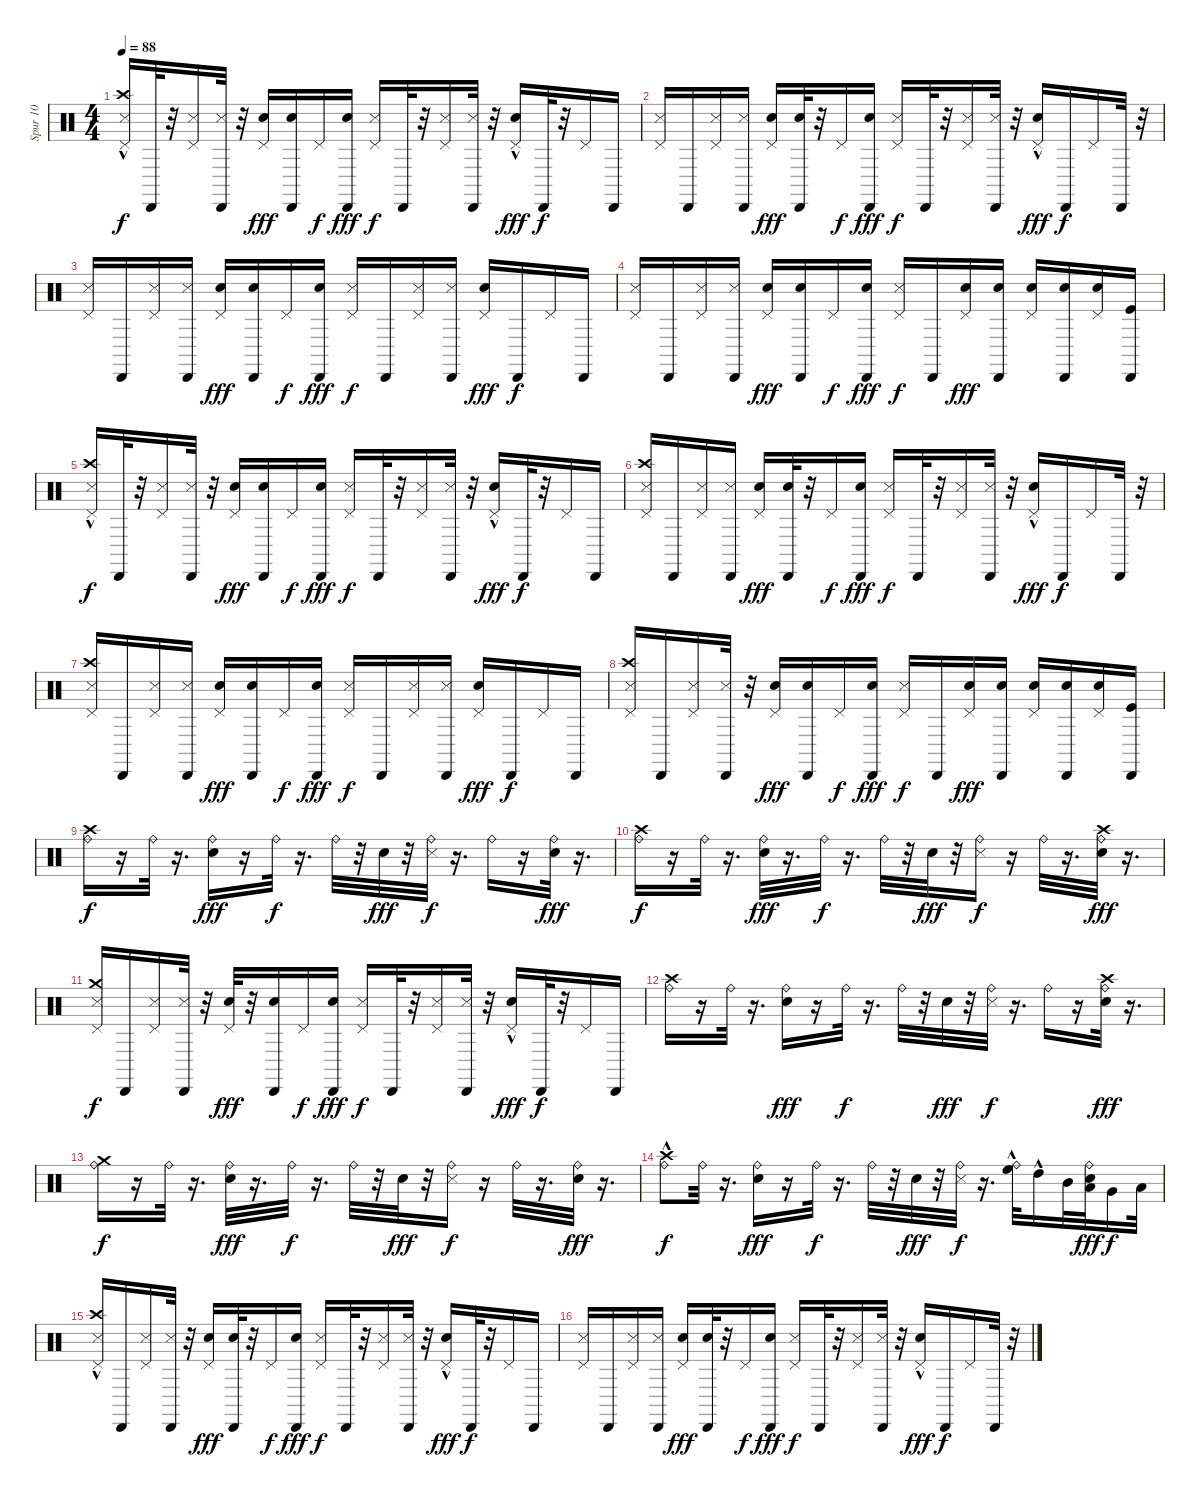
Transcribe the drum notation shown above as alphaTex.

\track ("Spur 10" "Spur 10") {instrument percussion}
\staff {score}
\articulation defaults
\ts (4 4)
\tempo 88
\clef neutral
\ks c
("Pedal Hi-Hat (hit)" "Metronome (hit)" "Crash high (hit)"{hac}).16{dy f} "Cabasa (hit)".32 r.32 ("Pedal Hi-Hat (hit)" "Metronome (hit)").16 ("Cabasa (hit)" "Metronome (hit)").32 r.32 ("Pedal Hi-Hat (hit)" "Electric Snare (hit)").16{dy fff} ("Cabasa (hit)" "Electric Snare (hit)").16 "Pedal Hi-Hat (hit)".16{dy f} ("Cabasa (hit)" "Electric Snare (hit)").16{dy fff} ("Pedal Hi-Hat (hit)" "Metronome (hit)").16{dy f} "Cabasa (hit)".32 r.32 ("Pedal Hi-Hat (hit)" "Metronome (hit)").16 ("Cabasa (hit)" "Metronome (hit)").32 r.32 ("Pedal Hi-Hat (hit)" "Electric Snare (hit)"{hac}).16{dy fff} "Cabasa (hit)".32{dy f} r.32 "Pedal Hi-Hat (hit)".16 "Cabasa (hit)".16 |
("Pedal Hi-Hat (hit)" "Metronome (hit)").16 "Cabasa (hit)".16 ("Pedal Hi-Hat (hit)" "Metronome (hit)").16 ("Cabasa (hit)" "Metronome (hit)").16 ("Pedal Hi-Hat (hit)" "Electric Snare (hit)").16{dy fff} ("Cabasa (hit)" "Electric Snare (hit)").32 r.32 "Pedal Hi-Hat (hit)".16{dy f} ("Cabasa (hit)" "Electric Snare (hit)").16{dy fff} ("Pedal Hi-Hat (hit)" "Metronome (hit)").16{dy f} "Cabasa (hit)".32 r.32 ("Pedal Hi-Hat (hit)" "Metronome (hit)").16 ("Cabasa (hit)" "Metronome (hit)").32 r.32 ("Pedal Hi-Hat (hit)" "Electric Snare (hit)"{hac}).16{dy fff} "Cabasa (hit)".16{dy f} "Pedal Hi-Hat (hit)".16 "Cabasa (hit)".32 r.32 |
("Pedal Hi-Hat (hit)" "Metronome (hit)").16 "Cabasa (hit)".16 ("Pedal Hi-Hat (hit)" "Metronome (hit)").16 ("Cabasa (hit)" "Metronome (hit)").16 ("Pedal Hi-Hat (hit)" "Electric Snare (hit)").16{dy fff} ("Cabasa (hit)" "Electric Snare (hit)").16 "Pedal Hi-Hat (hit)".16{dy f} ("Cabasa (hit)" "Electric Snare (hit)").16{dy fff} ("Pedal Hi-Hat (hit)" "Metronome (hit)").16{dy f} "Cabasa (hit)".16 ("Pedal Hi-Hat (hit)" "Metronome (hit)").16 ("Cabasa (hit)" "Metronome (hit)").16 ("Pedal Hi-Hat (hit)" "Electric Snare (hit)").16{dy fff} "Cabasa (hit)".16{dy f} "Pedal Hi-Hat (hit)".16 "Cabasa (hit)".16 |
("Pedal Hi-Hat (hit)" "Metronome (hit)").16 "Cabasa (hit)".16 ("Metronome (hit)" "Pedal Hi-Hat (hit)").16 ("Metronome (hit)" "Cabasa (hit)").16 ("Pedal Hi-Hat (hit)" "Electric Snare (hit)").16{dy fff} ("Cabasa (hit)" "Electric Snare (hit)").16 "Pedal Hi-Hat (hit)".16{dy f} ("Cabasa (hit)" "Electric Snare (hit)").16{dy fff} ("Metronome (hit)" "Pedal Hi-Hat (hit)").16{dy f} "Cabasa (hit)".16 ("Pedal Hi-Hat (hit)" "Electric Snare (hit)").16{dy fff} ("Cabasa (hit)" "Electric Snare (hit)").16 ("Pedal Hi-Hat (hit)" "Electric Snare (hit)").16 ("Cabasa (hit)" "Electric Snare (hit)").16 ("Pedal Hi-Hat (hit)" "Electric Snare (hit)").16 ("Cabasa (hit)" "Kick (hit)").16 |
("Pedal Hi-Hat (hit)" "Metronome (hit)" "Crash high (hit)"{hac}).16{dy f} "Cabasa (hit)".32 r.32 ("Pedal Hi-Hat (hit)" "Metronome (hit)").16 ("Cabasa (hit)" "Metronome (hit)").32 r.32 ("Pedal Hi-Hat (hit)" "Electric Snare (hit)").16{dy fff} ("Cabasa (hit)" "Electric Snare (hit)").16 "Pedal Hi-Hat (hit)".16{dy f} ("Cabasa (hit)" "Electric Snare (hit)").16{dy fff} ("Pedal Hi-Hat (hit)" "Metronome (hit)").16{dy f} "Cabasa (hit)".32 r.32 ("Pedal Hi-Hat (hit)" "Metronome (hit)").16 ("Cabasa (hit)" "Metronome (hit)").32 r.32 ("Pedal Hi-Hat (hit)" "Electric Snare (hit)"{hac}).16{dy fff} "Cabasa (hit)".32{dy f} r.32 "Pedal Hi-Hat (hit)".16 "Cabasa (hit)".16 |
("Pedal Hi-Hat (hit)" "Metronome (hit)" "Crash high (hit)").16 "Cabasa (hit)".16 ("Pedal Hi-Hat (hit)" "Metronome (hit)").16 ("Cabasa (hit)" "Metronome (hit)").16 ("Pedal Hi-Hat (hit)" "Electric Snare (hit)").16{dy fff} ("Cabasa (hit)" "Electric Snare (hit)").32 r.32 "Pedal Hi-Hat (hit)".16{dy f} ("Cabasa (hit)" "Electric Snare (hit)").16{dy fff} ("Pedal Hi-Hat (hit)" "Metronome (hit)").16{dy f} "Cabasa (hit)".32 r.32 ("Pedal Hi-Hat (hit)" "Metronome (hit)").16 ("Cabasa (hit)" "Metronome (hit)").32 r.32 ("Pedal Hi-Hat (hit)" "Electric Snare (hit)"{hac}).16{dy fff} "Cabasa (hit)".16{dy f} "Pedal Hi-Hat (hit)".16 "Cabasa (hit)".32 r.32 |
("Pedal Hi-Hat (hit)" "Metronome (hit)" "Crash high (hit)").16 "Cabasa (hit)".16 ("Pedal Hi-Hat (hit)" "Metronome (hit)").16 ("Cabasa (hit)" "Metronome (hit)").16 ("Pedal Hi-Hat (hit)" "Electric Snare (hit)").16{dy fff} ("Cabasa (hit)" "Electric Snare (hit)").16 "Pedal Hi-Hat (hit)".16{dy f} ("Cabasa (hit)" "Electric Snare (hit)").16{dy fff} ("Pedal Hi-Hat (hit)" "Metronome (hit)").16{dy f} "Cabasa (hit)".16 ("Pedal Hi-Hat (hit)" "Metronome (hit)").16 ("Cabasa (hit)" "Metronome (hit)").16 ("Pedal Hi-Hat (hit)" "Electric Snare (hit)").16{dy fff} "Cabasa (hit)".16{dy f} "Pedal Hi-Hat (hit)".16 "Cabasa (hit)".16 |
("Pedal Hi-Hat (hit)" "Metronome (hit)" "Crash high (hit)").16 "Cabasa (hit)".16 ("Metronome (hit)" "Pedal Hi-Hat (hit)").16 ("Metronome (hit)" "Cabasa (hit)").32 r.32 ("Pedal Hi-Hat (hit)" "Electric Snare (hit)").16{dy fff} ("Cabasa (hit)" "Electric Snare (hit)").16 "Pedal Hi-Hat (hit)".16{dy f} ("Cabasa (hit)" "Electric Snare (hit)").16{dy fff} ("Metronome (hit)" "Pedal Hi-Hat (hit)").16{dy f} "Cabasa (hit)".16 ("Pedal Hi-Hat (hit)" "Electric Snare (hit)").16{dy fff} ("Cabasa (hit)" "Electric Snare (hit)").16 ("Pedal Hi-Hat (hit)" "Electric Snare (hit)").16 ("Cabasa (hit)" "Electric Snare (hit)").16 ("Pedal Hi-Hat (hit)" "Electric Snare (hit)").16 ("Cabasa (hit)" "Kick (hit)").16 |
("Ride (bell)" "Crash high (hit)").16{dy f} r.16 "Ride (bell)".32 r.16{d} ("Ride (bell)" "Electric Snare (hit)").16{dy fff} r.16 "Ride (bell)".32{dy f} r.16{d} "Ride (bell)".32 r.32 "Electric Snare (hit)".32{dy fff} r.32 ("Metronome (hit)" "Ride (bell)").32{dy f} r.16{d} "Ride (bell)".16 r.16 ("Ride (bell)" "Electric Snare (hit)").32{dy fff} r.16{d} |
("Ride (bell)" "Crash high (hit)").16{dy f} r.16 "Ride (bell)".32 r.16{d} ("Ride (bell)" "Electric Snare (hit)").32{dy fff} r.16{d} "Ride (bell)".32{dy f} r.16{d} "Ride (bell)".32 r.32 "Electric Snare (hit)".32{dy fff} r.32 ("Metronome (hit)" "Ride (bell)").16{dy f} r.16 "Ride (bell)".32 r.16{d} ("Ride (bell)" "Electric Snare (hit)" "Crash high (hit)").32{dy fff} r.16{d} |
("Metronome (hit)" "Pedal Hi-Hat (hit)" "Crash medium (hit)").16{dy f} "Cabasa (hit)".16 ("Metronome (hit)" "Pedal Hi-Hat (hit)").16 ("Metronome (hit)" "Cabasa (hit)").32 r.32 ("Pedal Hi-Hat (hit)" "Electric Snare (hit)").32{dy fff} r.32 ("Cabasa (hit)" "Electric Snare (hit)").16 "Pedal Hi-Hat (hit)".16{dy f} ("Cabasa (hit)" "Electric Snare (hit)").16{dy fff} ("Pedal Hi-Hat (hit)" "Metronome (hit)").16{dy f} "Cabasa (hit)".32 r.32 ("Pedal Hi-Hat (hit)" "Metronome (hit)").16 ("Cabasa (hit)" "Metronome (hit)").32 r.32 ("Pedal Hi-Hat (hit)" "Electric Snare (hit)"{hac}).16{dy fff} "Cabasa (hit)".32{dy f} r.32 "Pedal Hi-Hat (hit)".16 "Cabasa (hit)".16 |
("Ride (bell)" "Crash high (hit)").16 r.16 "Ride (bell)".32 r.16{d} ("Ride (bell)" "Electric Snare (hit)").16{dy fff} r.16 "Ride (bell)".32{dy f} r.16{d} "Ride (bell)".32 r.32 "Electric Snare (hit)".32{dy fff} r.32 ("Metronome (hit)" "Ride (bell)").32{dy f} r.16{d} "Ride (bell)".16 r.16 ("Ride (bell)" "Electric Snare (hit)" "Crash high (hit)").32{dy fff} r.16{d} |
("Ride (bell)" "Crash medium (hit)").16{dy f} r.16 "Ride (bell)".32 r.16{d} ("Ride (bell)" "Electric Snare (hit)").32{dy fff} r.16{d} "Ride (bell)".32{dy f} r.16{d} "Ride (bell)".32 r.32 "Electric Snare (hit)".32{dy fff} r.32 ("Metronome (hit)" "Ride (bell)").16{dy f} r.16 "Ride (bell)".32 r.16{d} ("Ride (bell)" "Electric Snare (hit)").32{dy fff} r.16{d} |
("Ride (bell)" "Crash high (hit)"{hac}).8{dy f} "Ride (bell)".32 r.16{d} ("Ride (bell)" "Electric Snare (hit)").16{dy fff} r.16 "Ride (bell)".32{dy f} r.16{d} "Ride (bell)".32 r.32 "Electric Snare (hit)".32{dy fff} r.32 ("Metronome (hit)" "Ride (bell)").32{dy f} r.16{d} ("Ride (bell)" "High Floor Tom (hit)"{hac}).32 "High Tom (hit)"{hac}.16 "Mid Tom (hit)".32 ("Ride (bell)" "Electric Snare (hit)" "Low Tom (hit)").32{dy fff} "Very Low Tom (hit)".16{dy f} "Low Floor Tom (hit)".32 |
("Metronome (hit)" "Pedal Hi-Hat (hit)" "Crash high (hit)"{hac}).16 "Cabasa (hit)".16 ("Metronome (hit)" "Pedal Hi-Hat (hit)").16 ("Metronome (hit)" "Cabasa (hit)").32 r.32 ("Pedal Hi-Hat (hit)" "Electric Snare (hit)").16{dy fff} ("Cabasa (hit)" "Electric Snare (hit)").32 r.32 "Pedal Hi-Hat (hit)".16{dy f} ("Cabasa (hit)" "Electric Snare (hit)").16{dy fff} ("Pedal Hi-Hat (hit)" "Metronome (hit)").16{dy f} "Cabasa (hit)".32 r.32 ("Pedal Hi-Hat (hit)" "Metronome (hit)").16 ("Cabasa (hit)" "Metronome (hit)").32 r.32 ("Pedal Hi-Hat (hit)" "Electric Snare (hit)"{hac}).16{dy fff} "Cabasa (hit)".32{dy f} r.32 "Pedal Hi-Hat (hit)".16 "Cabasa (hit)".16 |
("Pedal Hi-Hat (hit)" "Metronome (hit)").16 "Cabasa (hit)".16 ("Pedal Hi-Hat (hit)" "Metronome (hit)").16 ("Cabasa (hit)" "Metronome (hit)").16 ("Pedal Hi-Hat (hit)" "Electric Snare (hit)").16{dy fff} ("Cabasa (hit)" "Electric Snare (hit)").32 r.32 "Pedal Hi-Hat (hit)".16{dy f} ("Cabasa (hit)" "Electric Snare (hit)").16{dy fff} ("Pedal Hi-Hat (hit)" "Metronome (hit)").16{dy f} "Cabasa (hit)".32 r.32 ("Pedal Hi-Hat (hit)" "Metronome (hit)").16 ("Cabasa (hit)" "Metronome (hit)").32 r.32 ("Pedal Hi-Hat (hit)" "Electric Snare (hit)"{hac}).16{dy fff} "Cabasa (hit)".16{dy f} "Pedal Hi-Hat (hit)".16 "Cabasa (hit)".32 r.32
